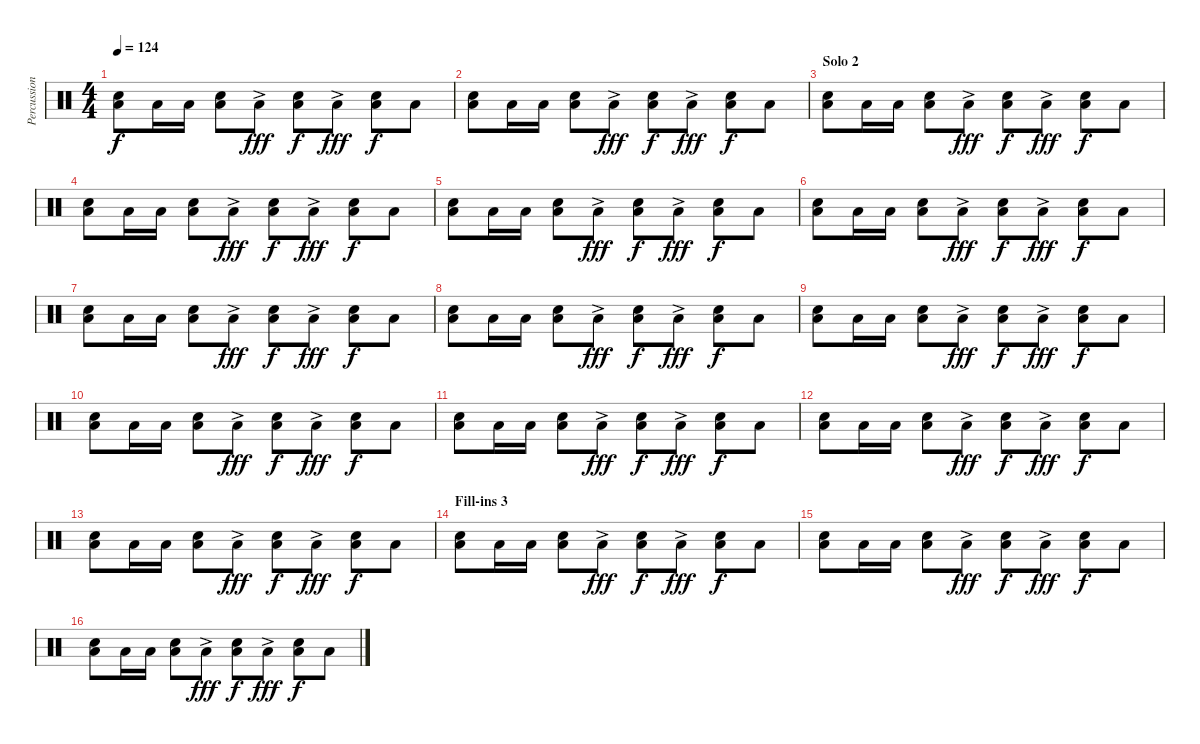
\track ("Percussion" "Percussion") {instrument percussion}
\staff {score}
\articulation defaults
\ts (4 4)
\tempo 124
\clef neutral
\ks c
("Low Floor Tom (hit)" "Snare (hit) 2").8{dy f} "Low Floor Tom (hit)".16 "Low Floor Tom (hit)".16 ("Low Floor Tom (hit)" "Snare (hit) 2").8 "Low Floor Tom (hit)"{ac}.8{dy fff} ("Low Floor Tom (hit)" "Snare (hit) 2").8{dy f} "Low Floor Tom (hit)"{ac}.8{dy fff} ("Low Floor Tom (hit)" "Snare (hit) 2").8{dy f} "Low Floor Tom (hit)".8 |
("Low Floor Tom (hit)" "Snare (hit) 2").8 "Low Floor Tom (hit)".16 "Low Floor Tom (hit)".16 ("Low Floor Tom (hit)" "Snare (hit) 2").8 "Low Floor Tom (hit)"{ac}.8{dy fff} ("Low Floor Tom (hit)" "Snare (hit) 2").8{dy f} "Low Floor Tom (hit)"{ac}.8{dy fff} ("Low Floor Tom (hit)" "Snare (hit) 2").8{dy f} "Low Floor Tom (hit)".8 |
\section ("" "Solo 2")
("Low Floor Tom (hit)" "Snare (hit) 2").8 "Low Floor Tom (hit)".16 "Low Floor Tom (hit)".16 ("Low Floor Tom (hit)" "Snare (hit) 2").8 "Low Floor Tom (hit)"{ac}.8{dy fff} ("Low Floor Tom (hit)" "Snare (hit) 2").8{dy f} "Low Floor Tom (hit)"{ac}.8{dy fff} ("Low Floor Tom (hit)" "Snare (hit) 2").8{dy f} "Low Floor Tom (hit)".8 |
("Low Floor Tom (hit)" "Snare (hit) 2").8 "Low Floor Tom (hit)".16 "Low Floor Tom (hit)".16 ("Low Floor Tom (hit)" "Snare (hit) 2").8 "Low Floor Tom (hit)"{ac}.8{dy fff} ("Low Floor Tom (hit)" "Snare (hit) 2").8{dy f} "Low Floor Tom (hit)"{ac}.8{dy fff} ("Low Floor Tom (hit)" "Snare (hit) 2").8{dy f} "Low Floor Tom (hit)".8 |
("Low Floor Tom (hit)" "Snare (hit) 2").8 "Low Floor Tom (hit)".16 "Low Floor Tom (hit)".16 ("Low Floor Tom (hit)" "Snare (hit) 2").8 "Low Floor Tom (hit)"{ac}.8{dy fff} ("Low Floor Tom (hit)" "Snare (hit) 2").8{dy f} "Low Floor Tom (hit)"{ac}.8{dy fff} ("Low Floor Tom (hit)" "Snare (hit) 2").8{dy f} "Low Floor Tom (hit)".8 |
("Low Floor Tom (hit)" "Snare (hit) 2").8 "Low Floor Tom (hit)".16 "Low Floor Tom (hit)".16 ("Low Floor Tom (hit)" "Snare (hit) 2").8 "Low Floor Tom (hit)"{ac}.8{dy fff} ("Low Floor Tom (hit)" "Snare (hit) 2").8{dy f} "Low Floor Tom (hit)"{ac}.8{dy fff} ("Low Floor Tom (hit)" "Snare (hit) 2").8{dy f} "Low Floor Tom (hit)".8 |
("Low Floor Tom (hit)" "Snare (hit) 2").8 "Low Floor Tom (hit)".16 "Low Floor Tom (hit)".16 ("Low Floor Tom (hit)" "Snare (hit) 2").8 "Low Floor Tom (hit)"{ac}.8{dy fff} ("Low Floor Tom (hit)" "Snare (hit) 2").8{dy f} "Low Floor Tom (hit)"{ac}.8{dy fff} ("Low Floor Tom (hit)" "Snare (hit) 2").8{dy f} "Low Floor Tom (hit)".8 |
("Low Floor Tom (hit)" "Snare (hit) 2").8 "Low Floor Tom (hit)".16 "Low Floor Tom (hit)".16 ("Low Floor Tom (hit)" "Snare (hit) 2").8 "Low Floor Tom (hit)"{ac}.8{dy fff} ("Low Floor Tom (hit)" "Snare (hit) 2").8{dy f} "Low Floor Tom (hit)"{ac}.8{dy fff} ("Low Floor Tom (hit)" "Snare (hit) 2").8{dy f} "Low Floor Tom (hit)".8 |
("Low Floor Tom (hit)" "Snare (hit) 2").8 "Low Floor Tom (hit)".16 "Low Floor Tom (hit)".16 ("Low Floor Tom (hit)" "Snare (hit) 2").8 "Low Floor Tom (hit)"{ac}.8{dy fff} ("Low Floor Tom (hit)" "Snare (hit) 2").8{dy f} "Low Floor Tom (hit)"{ac}.8{dy fff} ("Low Floor Tom (hit)" "Snare (hit) 2").8{dy f} "Low Floor Tom (hit)".8 |
("Low Floor Tom (hit)" "Snare (hit) 2").8 "Low Floor Tom (hit)".16 "Low Floor Tom (hit)".16 ("Low Floor Tom (hit)" "Snare (hit) 2").8 "Low Floor Tom (hit)"{ac}.8{dy fff} ("Low Floor Tom (hit)" "Snare (hit) 2").8{dy f} "Low Floor Tom (hit)"{ac}.8{dy fff} ("Low Floor Tom (hit)" "Snare (hit) 2").8{dy f} "Low Floor Tom (hit)".8 |
("Low Floor Tom (hit)" "Snare (hit) 2").8 "Low Floor Tom (hit)".16 "Low Floor Tom (hit)".16 ("Low Floor Tom (hit)" "Snare (hit) 2").8 "Low Floor Tom (hit)"{ac}.8{dy fff} ("Low Floor Tom (hit)" "Snare (hit) 2").8{dy f} "Low Floor Tom (hit)"{ac}.8{dy fff} ("Low Floor Tom (hit)" "Snare (hit) 2").8{dy f} "Low Floor Tom (hit)".8 |
("Low Floor Tom (hit)" "Snare (hit) 2").8 "Low Floor Tom (hit)".16 "Low Floor Tom (hit)".16 ("Low Floor Tom (hit)" "Snare (hit) 2").8 "Low Floor Tom (hit)"{ac}.8{dy fff} ("Low Floor Tom (hit)" "Snare (hit) 2").8{dy f} "Low Floor Tom (hit)"{ac}.8{dy fff} ("Low Floor Tom (hit)" "Snare (hit) 2").8{dy f} "Low Floor Tom (hit)".8 |
("Low Floor Tom (hit)" "Snare (hit) 2").8 "Low Floor Tom (hit)".16 "Low Floor Tom (hit)".16 ("Low Floor Tom (hit)" "Snare (hit) 2").8 "Low Floor Tom (hit)"{ac}.8{dy fff} ("Low Floor Tom (hit)" "Snare (hit) 2").8{dy f} "Low Floor Tom (hit)"{ac}.8{dy fff} ("Low Floor Tom (hit)" "Snare (hit) 2").8{dy f} "Low Floor Tom (hit)".8 |
\section ("" "Fill-ins 3")
("Low Floor Tom (hit)" "Snare (hit) 2").8 "Low Floor Tom (hit)".16 "Low Floor Tom (hit)".16 ("Low Floor Tom (hit)" "Snare (hit) 2").8 "Low Floor Tom (hit)"{ac}.8{dy fff} ("Low Floor Tom (hit)" "Snare (hit) 2").8{dy f} "Low Floor Tom (hit)"{ac}.8{dy fff} ("Low Floor Tom (hit)" "Snare (hit) 2").8{dy f} "Low Floor Tom (hit)".8 |
("Low Floor Tom (hit)" "Snare (hit) 2").8 "Low Floor Tom (hit)".16 "Low Floor Tom (hit)".16 ("Low Floor Tom (hit)" "Snare (hit) 2").8 "Low Floor Tom (hit)"{ac}.8{dy fff} ("Low Floor Tom (hit)" "Snare (hit) 2").8{dy f} "Low Floor Tom (hit)"{ac}.8{dy fff} ("Low Floor Tom (hit)" "Snare (hit) 2").8{dy f} "Low Floor Tom (hit)".8 |
("Low Floor Tom (hit)" "Snare (hit) 2").8 "Low Floor Tom (hit)".16 "Low Floor Tom (hit)".16 ("Low Floor Tom (hit)" "Snare (hit) 2").8 "Low Floor Tom (hit)"{ac}.8{dy fff} ("Low Floor Tom (hit)" "Snare (hit) 2").8{dy f} "Low Floor Tom (hit)"{ac}.8{dy fff} ("Low Floor Tom (hit)" "Snare (hit) 2").8{dy f} "Low Floor Tom (hit)".8
